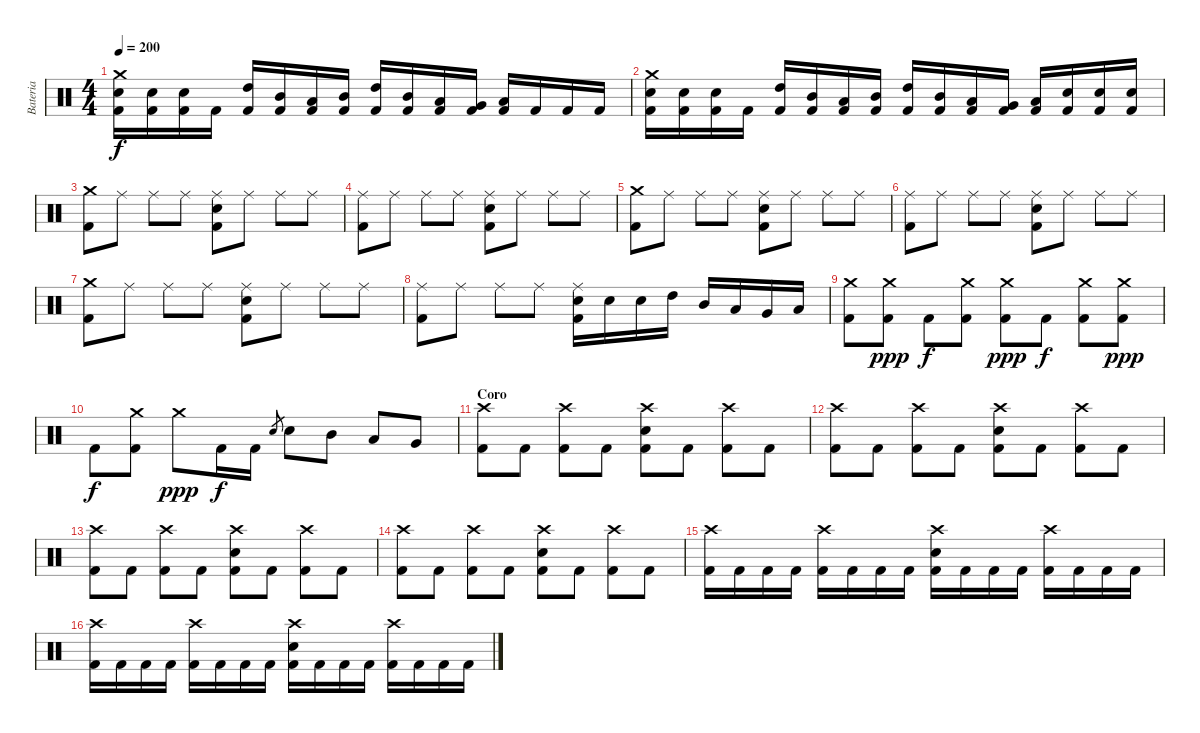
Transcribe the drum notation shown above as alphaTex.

\track ("Bateria" "Bateria") {instrument percussion}
\staff {score}
\articulation defaults
\ts (4 4)
\tempo 200
\clef neutral
\ks c
("Crash medium (hit)" "Electric Snare (hit)" "Kick (hit) 2").16{dy f} ("Electric Snare (hit)" "Kick (hit) 2").16 ("Electric Snare (hit)" "Kick (hit) 2").16 "Kick (hit) 2".16 ("High Tom (hit)" "Kick (hit) 2").16 ("Mid Tom (hit)" "Kick (hit) 2").16 ("Low Tom (hit)" "Kick (hit) 2").16 ("Mid Tom (hit)" "Kick (hit) 2").16 ("High Tom (hit)" "Kick (hit) 2").16 ("Mid Tom (hit)" "Kick (hit) 2").16 ("Low Tom (hit)" "Kick (hit) 2").16 ("Very Low Tom (hit)" "Kick (hit) 2").16 ("Low Floor Tom (hit)" "Kick (hit) 2").16 "Kick (hit) 2".16 "Kick (hit) 2".16 "Kick (hit) 2".16 |
("Crash medium (hit)" "Electric Snare (hit)" "Kick (hit) 2").16 ("Electric Snare (hit)" "Kick (hit) 2").16 ("Electric Snare (hit)" "Kick (hit) 2").16 "Kick (hit) 2".16 ("High Tom (hit)" "Kick (hit) 2").16 ("Mid Tom (hit)" "Kick (hit) 2").16 ("Low Tom (hit)" "Kick (hit) 2").16 ("Mid Tom (hit)" "Kick (hit) 2").16 ("High Tom (hit)" "Kick (hit) 2").16 ("Mid Tom (hit)" "Kick (hit) 2").16 ("Low Tom (hit)" "Kick (hit) 2").16 ("Very Low Tom (hit)" "Kick (hit) 2").16 ("Low Floor Tom (hit)" "Kick (hit) 2").16 ("Electric Snare (hit)" "Kick (hit) 2").16 ("Electric Snare (hit)" "Kick (hit) 2").16 ("Electric Snare (hit)" "Kick (hit) 2").16 |
("Crash medium (hit)" "Kick (hit) 2").8 "Ride (middle)".8 "Ride (middle)".8 "Ride (middle)".8 ("Ride (middle)" "Electric Snare (hit)" "Kick (hit) 2").8 "Ride (middle)".8 "Ride (middle)".8 "Ride (middle)".8 |
("Ride (middle)" "Kick (hit) 2").8 "Ride (middle)".8 "Ride (middle)".8 "Ride (middle)".8 ("Ride (middle)" "Electric Snare (hit)" "Kick (hit) 2").8 "Ride (middle)".8 "Ride (middle)".8 "Ride (middle)".8 |
("Crash medium (hit)" "Kick (hit) 2").8 "Ride (middle)".8 "Ride (middle)".8 "Ride (middle)".8 ("Ride (middle)" "Electric Snare (hit)" "Kick (hit) 2").8 "Ride (middle)".8 "Ride (middle)".8 "Ride (middle)".8 |
("Ride (middle)" "Kick (hit) 2").8 "Ride (middle)".8 "Ride (middle)".8 "Ride (middle)".8 ("Ride (middle)" "Electric Snare (hit)" "Kick (hit) 2").8 "Ride (middle)".8 "Ride (middle)".8 "Ride (middle)".8 |
("Crash medium (hit)" "Kick (hit) 2").8 "Ride (middle)".8 "Ride (middle)".8 "Ride (middle)".8 ("Ride (middle)" "Electric Snare (hit)" "Kick (hit) 2").8 "Ride (middle)".8 "Ride (middle)".8 "Ride (middle)".8 |
("Ride (middle)" "Kick (hit) 2").8 "Ride (middle)".8 "Ride (middle)".8 "Ride (middle)".8 ("Ride (middle)" "Electric Snare (hit)" "Kick (hit) 2").16 "Electric Snare (hit)".16 "Electric Snare (hit)".16 "High Tom (hit)".16 "Mid Tom (hit)".16 "Low Tom (hit)".16 "Very Low Tom (hit)".16 "Low Floor Tom (hit)".16 |
("Crash medium (hit)" "Kick (hit) 2").8 ("Crash medium (hit)" "Kick (hit) 2").8{dy ppp} "Kick (hit) 2".8{dy f} ("Crash medium (hit)" "Kick (hit) 2").8 ("Crash medium (hit)" "Kick (hit) 2").8{dy ppp} "Kick (hit) 2".8{dy f} ("Crash medium (hit)" "Kick (hit) 2").8 ("Crash medium (hit)" "Kick (hit) 2").8{dy ppp} |
"Kick (hit) 2".8{dy f} ("Crash medium (hit)" "Kick (hit) 2").8 "Crash medium (hit)".8{dy ppp} "Kick (hit) 2".16{dy f} "Kick (hit) 2".16 "Electric Snare (hit)".8{gr} "Electric Snare (hit)".8 "Mid Tom (hit)".8 "Low Tom (hit)".8 "Very Low Tom (hit)".8 |
\section ("" "Coro")
("Crash high (hit)" "Kick (hit) 2").8 "Kick (hit) 2".8 ("Crash high (hit)" "Kick (hit) 2").8 "Kick (hit) 2".8 ("Crash high (hit)" "Electric Snare (hit)" "Kick (hit) 2").8 "Kick (hit) 2".8 ("Crash high (hit)" "Kick (hit) 2").8 "Kick (hit) 2".8 |
("Crash high (hit)" "Kick (hit) 2").8 "Kick (hit) 2".8 ("Crash high (hit)" "Kick (hit) 2").8 "Kick (hit) 2".8 ("Crash high (hit)" "Electric Snare (hit)" "Kick (hit) 2").8 "Kick (hit) 2".8 ("Crash high (hit)" "Kick (hit) 2").8 "Kick (hit) 2".8 |
("Crash high (hit)" "Kick (hit) 2").8 "Kick (hit) 2".8 ("Crash high (hit)" "Kick (hit) 2").8 "Kick (hit) 2".8 ("Crash high (hit)" "Electric Snare (hit)" "Kick (hit) 2").8 "Kick (hit) 2".8 ("Crash high (hit)" "Kick (hit) 2").8 "Kick (hit) 2".8 |
("Crash high (hit)" "Kick (hit) 2").8 "Kick (hit) 2".8 ("Crash high (hit)" "Kick (hit) 2").8 "Kick (hit) 2".8 ("Crash high (hit)" "Electric Snare (hit)" "Kick (hit) 2").8 "Kick (hit) 2".8 ("Crash high (hit)" "Kick (hit) 2").8 "Kick (hit) 2".8 |
("Crash high (hit)" "Kick (hit) 2").16 "Kick (hit) 2".16 "Kick (hit) 2".16 "Kick (hit) 2".16 ("Crash high (hit)" "Kick (hit) 2").16 "Kick (hit) 2".16 "Kick (hit) 2".16 "Kick (hit) 2".16 ("Crash high (hit)" "Electric Snare (hit)" "Kick (hit) 2").16 "Kick (hit) 2".16 "Kick (hit) 2".16 "Kick (hit) 2".16 ("Crash high (hit)" "Kick (hit) 2").16 "Kick (hit) 2".16 "Kick (hit) 2".16 "Kick (hit) 2".16 |
("Crash high (hit)" "Kick (hit) 2").16 "Kick (hit) 2".16 "Kick (hit) 2".16 "Kick (hit) 2".16 ("Crash high (hit)" "Kick (hit) 2").16 "Kick (hit) 2".16 "Kick (hit) 2".16 "Kick (hit) 2".16 ("Crash high (hit)" "Electric Snare (hit)" "Kick (hit) 2").16 "Kick (hit) 2".16 "Kick (hit) 2".16 "Kick (hit) 2".16 ("Crash high (hit)" "Kick (hit) 2").16 "Kick (hit) 2".16 "Kick (hit) 2".16 "Kick (hit) 2".16
